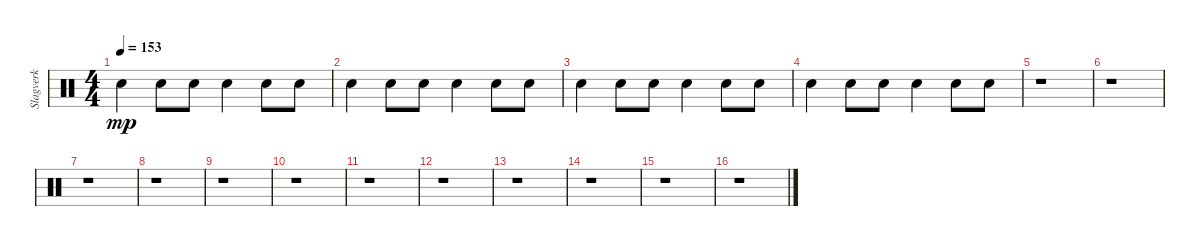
\track ("Slagverk" "Slagverk") {instrument percussion}
\staff {score}
\articulation defaults
\ts (4 4)
\tempo 153
\clef neutral
\ks c "Snare (hit) 2".4{dy mp} "Snare (hit) 2".8 "Snare (hit) 2".8 "Snare (hit) 2".4 "Snare (hit) 2".8 "Snare (hit) 2".8
|
"Snare (hit) 2".4 "Snare (hit) 2".8 "Snare (hit) 2".8 "Snare (hit) 2".4 "Snare (hit) 2".8 "Snare (hit) 2".8 |
"Snare (hit) 2".4 "Snare (hit) 2".8 "Snare (hit) 2".8 "Snare (hit) 2".4 "Snare (hit) 2".8 "Snare (hit) 2".8 |
"Snare (hit) 2".4 "Snare (hit) 2".8 "Snare (hit) 2".8 "Snare (hit) 2".4 "Snare (hit) 2".8 "Snare (hit) 2".8 |
r.1 |
r.1 |
r.1 |
r.1 |
r.1 |
r.1 |
r.1 |
r.1 |
r.1 |
r.1 |
r.1 |
r.1
